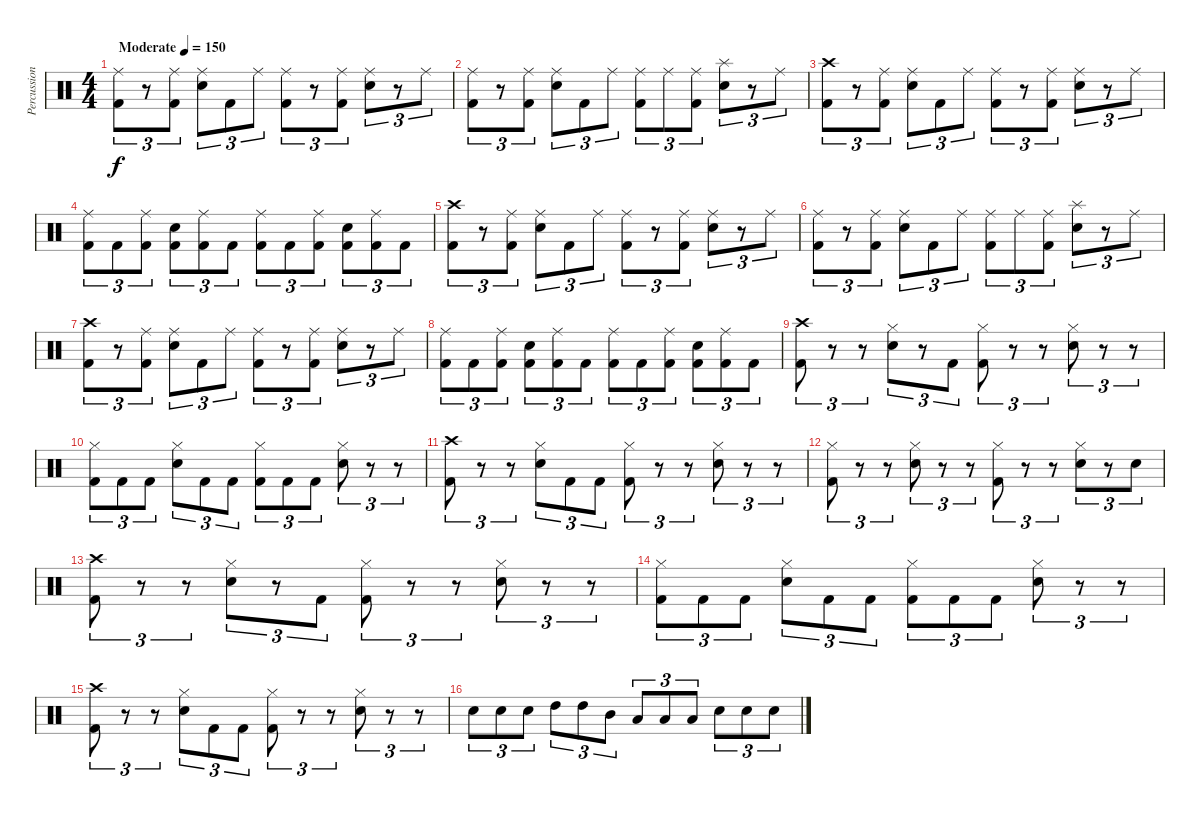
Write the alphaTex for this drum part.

\track ("Percussion" "Percussion") {instrument percussion}
\staff {score}
\articulation defaults
\ts (4 4)
\tempo (150 "Moderate")
\clef neutral
\ks c
("Ride (middle)" "Kick (hit) 2").8{tu (3 2) dy f} r.8{tu (3 2)} ("Ride (middle)" "Kick (hit) 2").8{tu (3 2)} ("Ride (middle)" "Snare (hit) 2").8{tu (3 2)} "Kick (hit) 2".8{tu (3 2)} "Ride (middle)".8{tu (3 2)} ("Ride (middle)" "Kick (hit) 2").8{tu (3 2)} r.8{tu (3 2)} ("Ride (middle)" "Kick (hit) 2").8{tu (3 2)} ("Ride (middle)" "Snare (hit) 2").8{tu (3 2)} r.8{tu (3 2)} "Ride (middle)".8{tu (3 2)} |
("Ride (middle)" "Kick (hit) 2").8{tu (3 2)} r.8{tu (3 2)} ("Ride (middle)" "Kick (hit) 2").8{tu (3 2)} ("Ride (middle)" "Snare (hit) 2").8{tu (3 2)} "Kick (hit) 2".8{tu (3 2)} "Ride (middle)".8{tu (3 2)} ("Ride (middle)" "Kick (hit) 2").8{tu (3 2)} "Ride (middle)".8{tu (3 2)} ("Ride (middle)" "Kick (hit) 2").8{tu (3 2)} ("Splash (hit)" "Snare (hit) 2").8{tu (3 2)} r.8{tu (3 2)} "Ride (middle)".8{tu (3 2)} |
("Crash high (hit)" "Kick (hit) 2").8{tu (3 2)} r.8{tu (3 2)} ("Ride (middle)" "Kick (hit) 2").8{tu (3 2)} ("Ride (middle)" "Snare (hit) 2").8{tu (3 2)} "Kick (hit) 2".8{tu (3 2)} "Ride (middle)".8{tu (3 2)} ("Ride (middle)" "Kick (hit) 2").8{tu (3 2)} r.8{tu (3 2)} ("Ride (middle)" "Kick (hit) 2").8{tu (3 2)} ("Ride (middle)" "Snare (hit) 2").8{tu (3 2)} r.8{tu (3 2)} "Ride (middle)".8{tu (3 2)} |
("Ride (middle)" "Kick (hit) 2").8{tu (3 2)} "Kick (hit) 2".8{tu (3 2)} ("Ride (middle)" "Kick (hit) 2").8{tu (3 2)} ("Snare (hit) 2" "Kick (hit) 2").8{tu (3 2)} ("Ride (middle)" "Kick (hit) 2").8{tu (3 2)} "Kick (hit) 2".8{tu (3 2)} ("Ride (middle)" "Kick (hit) 2").8{tu (3 2)} "Kick (hit) 2".8{tu (3 2)} ("Ride (middle)" "Kick (hit) 2").8{tu (3 2)} ("Snare (hit) 2" "Kick (hit) 2").8{tu (3 2)} ("Ride (middle)" "Kick (hit) 2").8{tu (3 2)} "Kick (hit) 2".8{tu (3 2)} |
("Crash high (hit)" "Kick (hit) 2").8{tu (3 2)} r.8{tu (3 2)} ("Ride (middle)" "Kick (hit) 2").8{tu (3 2)} ("Ride (middle)" "Snare (hit) 2").8{tu (3 2)} "Kick (hit) 2".8{tu (3 2)} "Ride (middle)".8{tu (3 2)} ("Ride (middle)" "Kick (hit) 2").8{tu (3 2)} r.8{tu (3 2)} ("Ride (middle)" "Kick (hit) 2").8{tu (3 2)} ("Ride (middle)" "Snare (hit) 2").8{tu (3 2)} r.8{tu (3 2)} "Ride (middle)".8{tu (3 2)} |
("Ride (middle)" "Kick (hit) 2").8{tu (3 2)} r.8{tu (3 2)} ("Ride (middle)" "Kick (hit) 2").8{tu (3 2)} ("Ride (middle)" "Snare (hit) 2").8{tu (3 2)} "Kick (hit) 2".8{tu (3 2)} "Ride (middle)".8{tu (3 2)} ("Ride (middle)" "Kick (hit) 2").8{tu (3 2)} "Ride (middle)".8{tu (3 2)} ("Ride (middle)" "Kick (hit) 2").8{tu (3 2)} ("Splash (hit)" "Snare (hit) 2").8{tu (3 2)} r.8{tu (3 2)} "Ride (middle)".8{tu (3 2)} |
("Crash high (hit)" "Kick (hit) 2").8{tu (3 2)} r.8{tu (3 2)} ("Ride (middle)" "Kick (hit) 2").8{tu (3 2)} ("Ride (middle)" "Snare (hit) 2").8{tu (3 2)} "Kick (hit) 2".8{tu (3 2)} "Ride (middle)".8{tu (3 2)} ("Ride (middle)" "Kick (hit) 2").8{tu (3 2)} r.8{tu (3 2)} ("Ride (middle)" "Kick (hit) 2").8{tu (3 2)} ("Ride (middle)" "Snare (hit) 2").8{tu (3 2)} r.8{tu (3 2)} "Ride (middle)".8{tu (3 2)} |
("Ride (middle)" "Kick (hit) 2").8{tu (3 2)} "Kick (hit) 2".8{tu (3 2)} ("Ride (middle)" "Kick (hit) 2").8{tu (3 2)} ("Snare (hit) 2" "Kick (hit) 2").8{tu (3 2)} ("Ride (middle)" "Kick (hit) 2").8{tu (3 2)} "Kick (hit) 2".8{tu (3 2)} ("Ride (middle)" "Kick (hit) 2").8{tu (3 2)} "Kick (hit) 2".8{tu (3 2)} ("Ride (middle)" "Kick (hit) 2").8{tu (3 2)} ("Snare (hit) 2" "Kick (hit) 2").8{tu (3 2)} ("Ride (middle)" "Kick (hit) 2").8{tu (3 2)} "Kick (hit) 2".8{tu (3 2)} |
("Crash high (hit)" "Kick (hit) 2").8{tu (3 2)} r.8{tu (3 2)} r.8{tu (3 2)} ("Hi-Hat (closed)" "Snare (hit) 2").8{tu (3 2)} r.8{tu (3 2)} "Kick (hit) 2".8{tu (3 2)} ("Hi-Hat (closed)" "Kick (hit) 2").8{tu (3 2)} r.8{tu (3 2)} r.8{tu (3 2)} ("Hi-Hat (closed)" "Snare (hit) 2").8{tu (3 2)} r.8{tu (3 2)} r.8{tu (3 2)} |
("Hi-Hat (closed)" "Kick (hit) 2").8{tu (3 2)} "Kick (hit) 2".8{tu (3 2)} "Kick (hit) 2".8{tu (3 2)} ("Hi-Hat (closed)" "Snare (hit) 2").8{tu (3 2)} "Kick (hit) 2".8{tu (3 2)} "Kick (hit) 2".8{tu (3 2)} ("Hi-Hat (closed)" "Kick (hit) 2").8{tu (3 2)} "Kick (hit) 2".8{tu (3 2)} "Kick (hit) 2".8{tu (3 2)} ("Hi-Hat (closed)" "Snare (hit) 2").8{tu (3 2)} r.8{tu (3 2)} r.8{tu (3 2)} |
("Crash high (hit)" "Kick (hit) 2").8{tu (3 2)} r.8{tu (3 2)} r.8{tu (3 2)} ("Hi-Hat (closed)" "Snare (hit) 2").8{tu (3 2)} "Kick (hit) 2".8{tu (3 2)} "Kick (hit) 2".8{tu (3 2)} ("Hi-Hat (closed)" "Kick (hit) 2").8{tu (3 2)} r.8{tu (3 2)} r.8{tu (3 2)} ("Hi-Hat (closed)" "Snare (hit) 2").8{tu (3 2)} r.8{tu (3 2)} r.8{tu (3 2)} |
("Hi-Hat (closed)" "Kick (hit) 2").8{tu (3 2)} r.8{tu (3 2)} r.8{tu (3 2)} ("Hi-Hat (closed)" "Snare (hit) 2").8{tu (3 2)} r.8{tu (3 2)} r.8{tu (3 2)} ("Hi-Hat (closed)" "Kick (hit) 2").8{tu (3 2)} r.8{tu (3 2)} r.8{tu (3 2)} ("Hi-Hat (closed)" "Snare (hit) 2").8{tu (3 2)} r.8{tu (3 2)} "Snare (hit) 2".8{tu (3 2)} |
("Crash high (hit)" "Kick (hit) 2").8{tu (3 2)} r.8{tu (3 2)} r.8{tu (3 2)} ("Hi-Hat (closed)" "Snare (hit) 2").8{tu (3 2)} r.8{tu (3 2)} "Kick (hit) 2".8{tu (3 2)} ("Hi-Hat (closed)" "Kick (hit) 2").8{tu (3 2)} r.8{tu (3 2)} r.8{tu (3 2)} ("Hi-Hat (closed)" "Snare (hit) 2").8{tu (3 2)} r.8{tu (3 2)} r.8{tu (3 2)} |
("Hi-Hat (closed)" "Kick (hit) 2").8{tu (3 2)} "Kick (hit) 2".8{tu (3 2)} "Kick (hit) 2".8{tu (3 2)} ("Hi-Hat (closed)" "Snare (hit) 2").8{tu (3 2)} "Kick (hit) 2".8{tu (3 2)} "Kick (hit) 2".8{tu (3 2)} ("Hi-Hat (closed)" "Kick (hit) 2").8{tu (3 2)} "Kick (hit) 2".8{tu (3 2)} "Kick (hit) 2".8{tu (3 2)} ("Hi-Hat (closed)" "Snare (hit) 2").8{tu (3 2)} r.8{tu (3 2)} r.8{tu (3 2)} |
("Crash high (hit)" "Kick (hit) 2").8{tu (3 2)} r.8{tu (3 2)} r.8{tu (3 2)} ("Hi-Hat (closed)" "Snare (hit) 2").8{tu (3 2)} "Kick (hit) 2".8{tu (3 2)} "Kick (hit) 2".8{tu (3 2)} ("Hi-Hat (closed)" "Kick (hit) 2").8{tu (3 2)} r.8{tu (3 2)} r.8{tu (3 2)} ("Hi-Hat (closed)" "Snare (hit) 2").8{tu (3 2)} r.8{tu (3 2)} r.8{tu (3 2)} |
"Snare (hit) 2".8{tu (3 2)} "Snare (hit) 2".8{tu (3 2)} "Snare (hit) 2".8{tu (3 2)} "High Tom (hit)".8{tu (3 2)} "High Tom (hit)".8{tu (3 2)} "Mid Tom (hit)".8{tu (3 2)} "Low Floor Tom (hit)".8{tu (3 2)} "Low Floor Tom (hit)".8{tu (3 2)} "Low Tom (hit)".8{tu (3 2)} "Snare (hit) 2".8{tu (3 2)} "Snare (hit) 2".8{tu (3 2)} "Snare (hit) 2".8{tu (3 2)}
